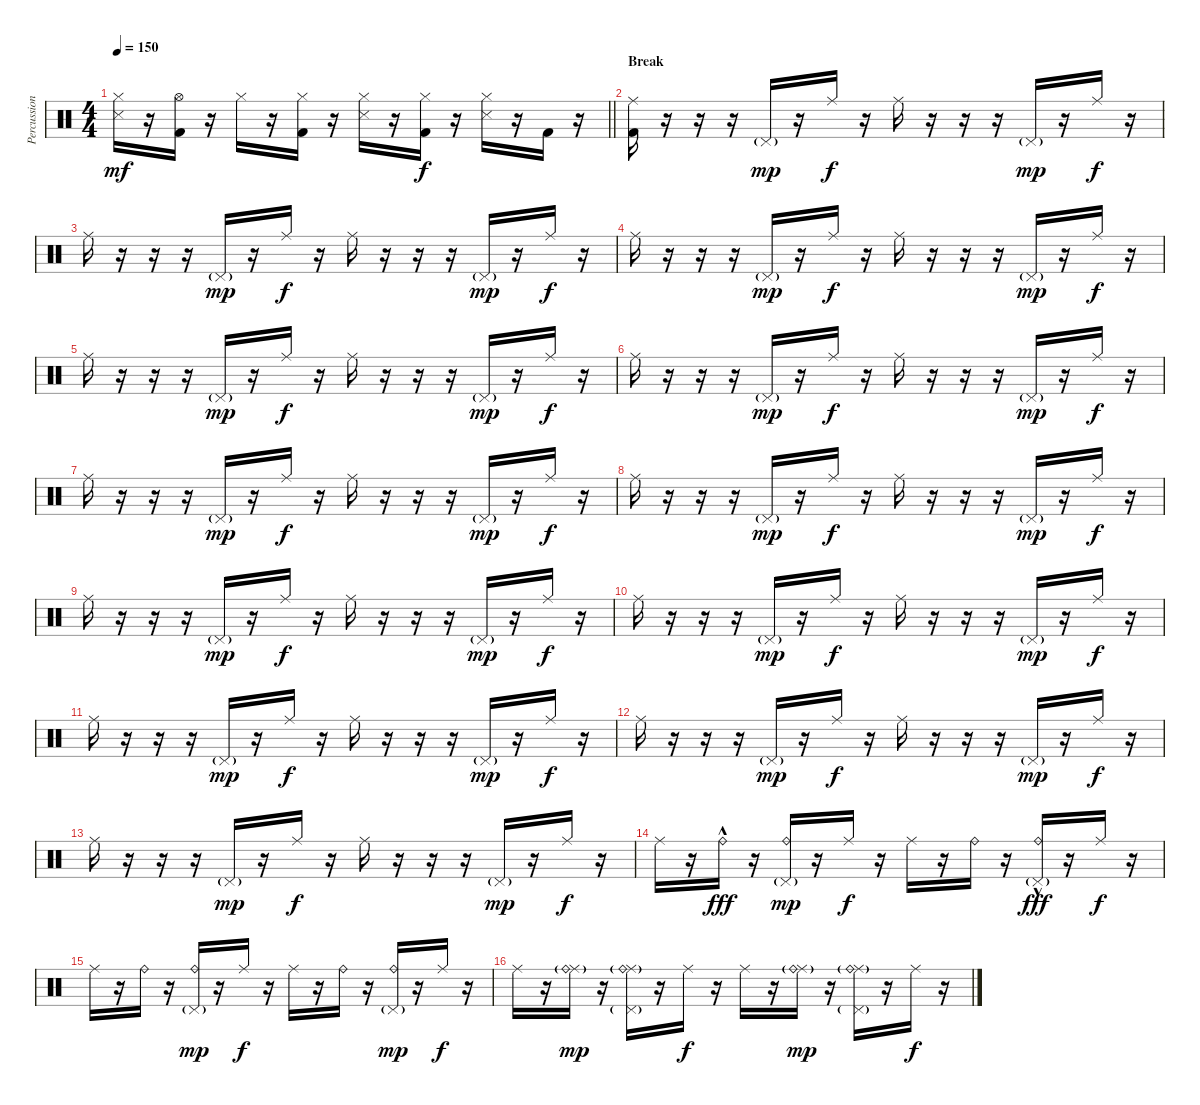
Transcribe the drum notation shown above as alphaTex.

\track ("Percussion" "Percussion") {instrument percussion}
\staff {score}
\articulation defaults
\ts (4 4)
\tempo 150
\clef neutral
\barLineRight lightlight
\ks c
("Hi-Hat (closed)" "Snare (side stick) 3").16{dy mf} r.16 ("Hi-Hat (open)" "Kick (hit) 2").16 r.16 "Hi-Hat (closed)".16 r.16 ("Hi-Hat (closed)" "Kick (hit) 2").16 r.16 ("Hi-Hat (closed)" "Snare (side stick) 3").16 r.16 ("Hi-Hat (closed)" "Kick (hit) 2").16{dy f} r.16 ("Hi-Hat (closed)" "Snare (side stick) 3").16 r.16 "Kick (hit) 2".16 r.16 |
\section ("" "Break")
("Ride (middle)" "Kick (hit) 2").16 r.16 r.16 r.16 "Pedal Hi-Hat (hit)"{g}.16{dy mp} r.16 "Ride (middle)".16{dy f} r.16 "Ride (middle)".16 r.16 r.16 r.16 "Pedal Hi-Hat (hit)"{g}.16{dy mp} r.16 "Ride (middle)".16{dy f} r.16 |
"Ride (middle)".16 r.16 r.16 r.16 "Pedal Hi-Hat (hit)"{g}.16{dy mp} r.16 "Ride (middle)".16{dy f} r.16 "Ride (middle)".16 r.16 r.16 r.16 "Pedal Hi-Hat (hit)"{g}.16{dy mp} r.16 "Ride (middle)".16{dy f} r.16 |
"Ride (middle)".16 r.16 r.16 r.16 "Pedal Hi-Hat (hit)"{g}.16{dy mp} r.16 "Ride (middle)".16{dy f} r.16 "Ride (middle)".16 r.16 r.16 r.16 "Pedal Hi-Hat (hit)"{g}.16{dy mp} r.16 "Ride (middle)".16{dy f} r.16 |
"Ride (middle)".16 r.16 r.16 r.16 "Pedal Hi-Hat (hit)"{g}.16{dy mp} r.16 "Ride (middle)".16{dy f} r.16 "Ride (middle)".16 r.16 r.16 r.16 "Pedal Hi-Hat (hit)"{g}.16{dy mp} r.16 "Ride (middle)".16{dy f} r.16 |
"Ride (middle)".16 r.16 r.16 r.16 "Pedal Hi-Hat (hit)"{g}.16{dy mp} r.16 "Ride (middle)".16{dy f} r.16 "Ride (middle)".16 r.16 r.16 r.16 "Pedal Hi-Hat (hit)"{g}.16{dy mp} r.16 "Ride (middle)".16{dy f} r.16 |
"Ride (middle)".16 r.16 r.16 r.16 "Pedal Hi-Hat (hit)"{g}.16{dy mp} r.16 "Ride (middle)".16{dy f} r.16 "Ride (middle)".16 r.16 r.16 r.16 "Pedal Hi-Hat (hit)"{g}.16{dy mp} r.16 "Ride (middle)".16{dy f} r.16 |
"Ride (middle)".16 r.16 r.16 r.16 "Pedal Hi-Hat (hit)"{g}.16{dy mp} r.16 "Ride (middle)".16{dy f} r.16 "Ride (middle)".16 r.16 r.16 r.16 "Pedal Hi-Hat (hit)"{g}.16{dy mp} r.16 "Ride (middle)".16{dy f} r.16 |
"Ride (middle)".16 r.16 r.16 r.16 "Pedal Hi-Hat (hit)"{g}.16{dy mp} r.16 "Ride (middle)".16{dy f} r.16 "Ride (middle)".16 r.16 r.16 r.16 "Pedal Hi-Hat (hit)"{g}.16{dy mp} r.16 "Ride (middle)".16{dy f} r.16 |
"Ride (middle)".16 r.16 r.16 r.16 "Pedal Hi-Hat (hit)"{g}.16{dy mp} r.16 "Ride (middle)".16{dy f} r.16 "Ride (middle)".16 r.16 r.16 r.16 "Pedal Hi-Hat (hit)"{g}.16{dy mp} r.16 "Ride (middle)".16{dy f} r.16 |
"Ride (middle)".16 r.16 r.16 r.16 "Pedal Hi-Hat (hit)"{g}.16{dy mp} r.16 "Ride (middle)".16{dy f} r.16 "Ride (middle)".16 r.16 r.16 r.16 "Pedal Hi-Hat (hit)"{g}.16{dy mp} r.16 "Ride (middle)".16{dy f} r.16 |
"Ride (middle)".16 r.16 r.16 r.16 "Pedal Hi-Hat (hit)"{g}.16{dy mp} r.16 "Ride (middle)".16{dy f} r.16 "Ride (middle)".16 r.16 r.16 r.16 "Pedal Hi-Hat (hit)"{g}.16{dy mp} r.16 "Ride (middle)".16{dy f} r.16 |
"Ride (middle)".16 r.16 r.16 r.16 "Pedal Hi-Hat (hit)"{g}.16{dy mp} r.16 "Ride (middle)".16{dy f} r.16 "Ride (middle)".16 r.16 r.16 r.16 "Pedal Hi-Hat (hit)"{g}.16{dy mp} r.16 "Ride (middle)".16{dy f} r.16 |
"Ride (middle)".16 r.16 "Ride (bell)"{hac}.16{dy fff} r.16 ("Pedal Hi-Hat (hit)"{g} "Ride (bell)").16{dy mp} r.16 "Ride (middle)".16{dy f} r.16 "Ride (middle)".16 r.16 "Ride (bell)".16 r.16 ("Pedal Hi-Hat (hit)"{g} "Ride (bell)"{hac}).16{dy fff} r.16 "Ride (middle)".16{dy f} r.16 |
"Ride (middle)".16 r.16 "Ride (bell)".16 r.16 ("Pedal Hi-Hat (hit)"{g} "Ride (bell)").16{dy mp} r.16 "Ride (middle)".16{dy f} r.16 "Ride (middle)".16 r.16 "Ride (bell)".16 r.16 ("Pedal Hi-Hat (hit)"{g} "Ride (bell)").16{dy mp} r.16 "Ride (middle)".16{dy f} r.16 |
"Ride (middle)".16 r.16 ("Ride (middle)"{g} "Ride (bell)").16{dy mp} r.16 ("Ride (middle)"{g} "Ride (bell)" "Pedal Hi-Hat (hit)"{g}).16 r.16 "Ride (middle)".16{dy f} r.16 "Ride (middle)".16 r.16 ("Ride (middle)"{g} "Ride (bell)").16{dy mp} r.16 ("Ride (middle)"{g} "Ride (bell)" "Pedal Hi-Hat (hit)"{g}).16 r.16 "Ride (middle)".16{dy f} r.16
